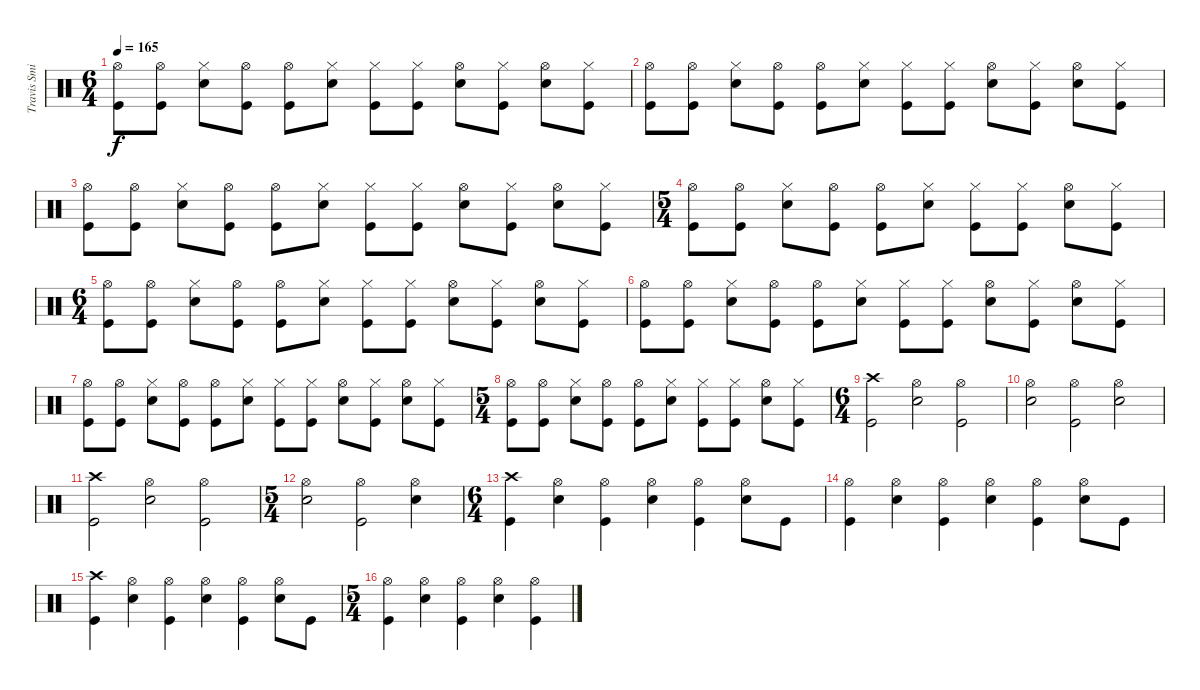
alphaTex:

\track ("Travis Smith" "Travis Smi") {instrument percussion}
\staff {score}
\articulation defaults
\ts (6 4)
\tempo 165
\clef neutral
\ks c
("Hi-Hat (open)" "Kick (hit)").8{dy f} ("Hi-Hat (open)" "Kick (hit)").8 ("Hi-Hat (closed)" "Electric Snare (hit)").8 ("Hi-Hat (open)" "Kick (hit)").8 ("Hi-Hat (open)" "Kick (hit)").8 ("Hi-Hat (closed)" "Electric Snare (hit)").8 ("Hi-Hat (closed)" "Kick (hit)").8 ("Hi-Hat (closed)" "Kick (hit)").8 ("Hi-Hat (open)" "Electric Snare (hit)").8 ("Hi-Hat (closed)" "Kick (hit)").8 ("Hi-Hat (open)" "Electric Snare (hit)").8 ("Hi-Hat (closed)" "Kick (hit)").8 |
("Hi-Hat (open)" "Kick (hit)").8 ("Hi-Hat (open)" "Kick (hit)").8 ("Hi-Hat (closed)" "Electric Snare (hit)").8 ("Hi-Hat (open)" "Kick (hit)").8 ("Hi-Hat (open)" "Kick (hit)").8 ("Hi-Hat (closed)" "Electric Snare (hit)").8 ("Hi-Hat (closed)" "Kick (hit)").8 ("Hi-Hat (closed)" "Kick (hit)").8 ("Hi-Hat (open)" "Electric Snare (hit)").8 ("Hi-Hat (closed)" "Kick (hit)").8 ("Hi-Hat (open)" "Electric Snare (hit)").8 ("Hi-Hat (closed)" "Kick (hit)").8 |
("Hi-Hat (open)" "Kick (hit)").8 ("Hi-Hat (open)" "Kick (hit)").8 ("Hi-Hat (closed)" "Electric Snare (hit)").8 ("Hi-Hat (open)" "Kick (hit)").8 ("Hi-Hat (open)" "Kick (hit)").8 ("Hi-Hat (closed)" "Electric Snare (hit)").8 ("Hi-Hat (closed)" "Kick (hit)").8 ("Hi-Hat (closed)" "Kick (hit)").8 ("Hi-Hat (open)" "Electric Snare (hit)").8 ("Hi-Hat (closed)" "Kick (hit)").8 ("Hi-Hat (open)" "Electric Snare (hit)").8 ("Hi-Hat (closed)" "Kick (hit)").8 |
\ts (5 4)
("Hi-Hat (open)" "Kick (hit)").8 ("Hi-Hat (open)" "Kick (hit)").8 ("Hi-Hat (closed)" "Electric Snare (hit)").8 ("Hi-Hat (open)" "Kick (hit)").8 ("Hi-Hat (open)" "Kick (hit)").8 ("Hi-Hat (closed)" "Electric Snare (hit)").8 ("Hi-Hat (closed)" "Kick (hit)").8 ("Hi-Hat (closed)" "Kick (hit)").8 ("Hi-Hat (open)" "Electric Snare (hit)").8 ("Hi-Hat (closed)" "Kick (hit)").8 |
\ts (6 4)
("Hi-Hat (open)" "Kick (hit)").8 ("Hi-Hat (open)" "Kick (hit)").8 ("Hi-Hat (closed)" "Electric Snare (hit)").8 ("Hi-Hat (open)" "Kick (hit)").8 ("Hi-Hat (open)" "Kick (hit)").8 ("Hi-Hat (closed)" "Electric Snare (hit)").8 ("Hi-Hat (closed)" "Kick (hit)").8 ("Hi-Hat (closed)" "Kick (hit)").8 ("Hi-Hat (open)" "Electric Snare (hit)").8 ("Hi-Hat (closed)" "Kick (hit)").8 ("Hi-Hat (open)" "Electric Snare (hit)").8 ("Hi-Hat (closed)" "Kick (hit)").8 |
("Hi-Hat (open)" "Kick (hit)").8 ("Hi-Hat (open)" "Kick (hit)").8 ("Hi-Hat (closed)" "Electric Snare (hit)").8 ("Hi-Hat (open)" "Kick (hit)").8 ("Hi-Hat (open)" "Kick (hit)").8 ("Hi-Hat (closed)" "Electric Snare (hit)").8 ("Hi-Hat (closed)" "Kick (hit)").8 ("Hi-Hat (closed)" "Kick (hit)").8 ("Hi-Hat (open)" "Electric Snare (hit)").8 ("Hi-Hat (closed)" "Kick (hit)").8 ("Hi-Hat (open)" "Electric Snare (hit)").8 ("Hi-Hat (closed)" "Kick (hit)").8 |
("Hi-Hat (open)" "Kick (hit)").8 ("Hi-Hat (open)" "Kick (hit)").8 ("Hi-Hat (closed)" "Electric Snare (hit)").8 ("Hi-Hat (open)" "Kick (hit)").8 ("Hi-Hat (open)" "Kick (hit)").8 ("Hi-Hat (closed)" "Electric Snare (hit)").8 ("Hi-Hat (closed)" "Kick (hit)").8 ("Hi-Hat (closed)" "Kick (hit)").8 ("Hi-Hat (open)" "Electric Snare (hit)").8 ("Hi-Hat (closed)" "Kick (hit)").8 ("Hi-Hat (open)" "Electric Snare (hit)").8 ("Hi-Hat (closed)" "Kick (hit)").8 |
\ts (5 4)
("Hi-Hat (open)" "Kick (hit)").8 ("Hi-Hat (open)" "Kick (hit)").8 ("Hi-Hat (closed)" "Electric Snare (hit)").8 ("Hi-Hat (open)" "Kick (hit)").8 ("Hi-Hat (open)" "Kick (hit)").8 ("Hi-Hat (closed)" "Electric Snare (hit)").8 ("Hi-Hat (closed)" "Kick (hit)").8 ("Hi-Hat (closed)" "Kick (hit)").8 ("Hi-Hat (open)" "Electric Snare (hit)").8 ("Hi-Hat (closed)" "Kick (hit)").8 |
\ts (6 4)
("Crash high (hit)" "Kick (hit)").2 ("Hi-Hat (open)" "Electric Snare (hit)").2 ("Hi-Hat (open)" "Kick (hit)").2 |
("Hi-Hat (open)" "Electric Snare (hit)").2 ("Hi-Hat (open)" "Kick (hit)").2 ("Hi-Hat (open)" "Electric Snare (hit)").2 |
("Crash high (hit)" "Kick (hit)").2 ("Hi-Hat (open)" "Electric Snare (hit)").2 ("Hi-Hat (open)" "Kick (hit)").2 |
\ts (5 4)
("Hi-Hat (open)" "Electric Snare (hit)").2 ("Hi-Hat (open)" "Kick (hit)").2 ("Hi-Hat (open)" "Electric Snare (hit)").4 |
\ts (6 4)
("Crash high (hit)" "Kick (hit)").4 ("Hi-Hat (open)" "Electric Snare (hit)").4 ("Hi-Hat (open)" "Kick (hit)").4 ("Hi-Hat (open)" "Electric Snare (hit)").4 ("Hi-Hat (open)" "Kick (hit)").4 ("Hi-Hat (open)" "Electric Snare (hit)").8 "Kick (hit)".8 |
("Hi-Hat (open)" "Kick (hit)").4 ("Hi-Hat (open)" "Electric Snare (hit)").4 ("Hi-Hat (open)" "Kick (hit)").4 ("Hi-Hat (open)" "Electric Snare (hit)").4 ("Hi-Hat (open)" "Kick (hit)").4 ("Hi-Hat (open)" "Electric Snare (hit)").8 "Kick (hit)".8 |
("Crash high (hit)" "Kick (hit)").4 ("Hi-Hat (open)" "Electric Snare (hit)").4 ("Hi-Hat (open)" "Kick (hit)").4 ("Hi-Hat (open)" "Electric Snare (hit)").4 ("Hi-Hat (open)" "Kick (hit)").4 ("Hi-Hat (open)" "Electric Snare (hit)").8 "Kick (hit)".8 |
\ts (5 4)
("Hi-Hat (open)" "Kick (hit)").4 ("Hi-Hat (open)" "Electric Snare (hit)").4 ("Hi-Hat (open)" "Kick (hit)").4 ("Hi-Hat (open)" "Electric Snare (hit)").4 ("Hi-Hat (open)" "Kick (hit)").4
